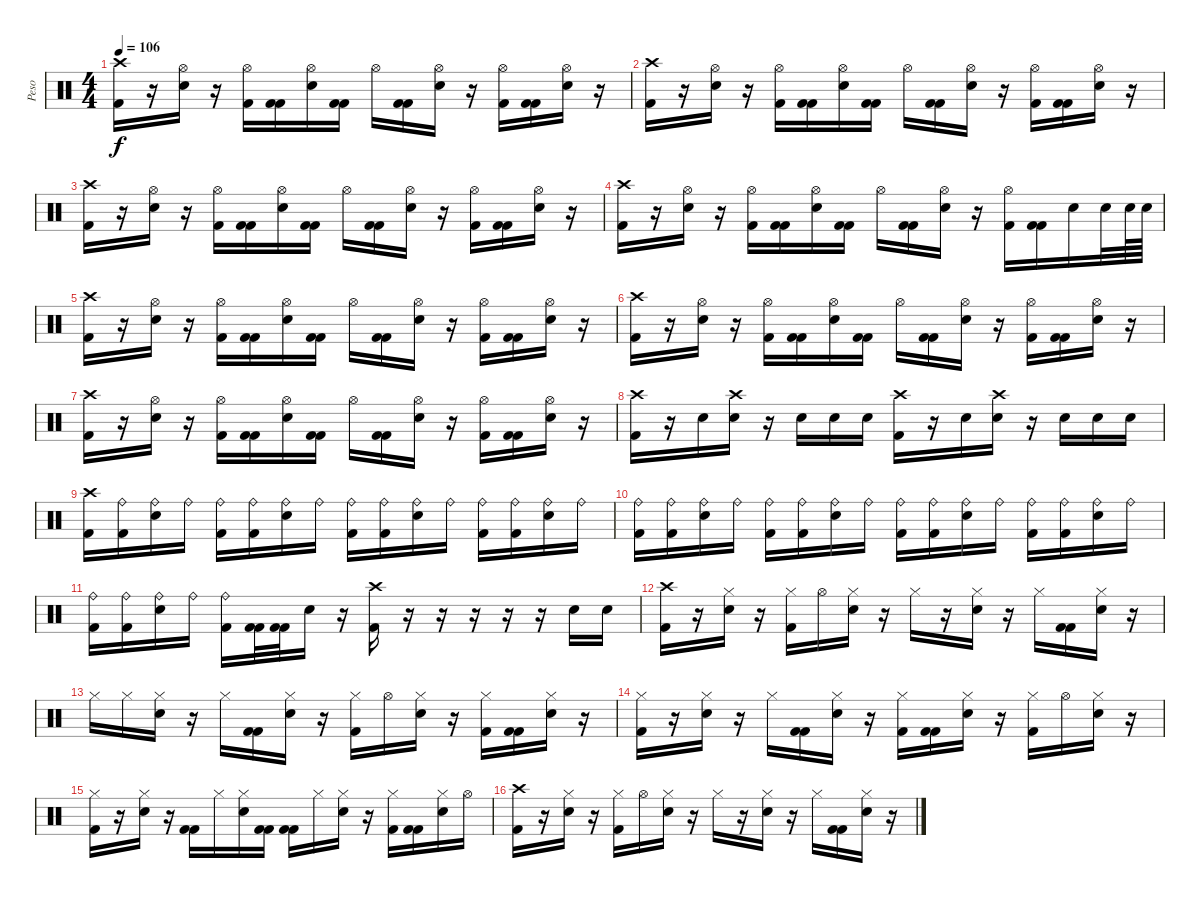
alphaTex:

\track ("Peso" "Peso") {instrument percussion}
\staff {score}
\articulation defaults
\ts (4 4)
\tempo 106
\clef neutral
\ks c
("Crash high (hit)" "Kick (hit) 2").16{dy f} r.16 ("Hi-Hat (open)" "Snare (hit) 2").16 r.16 ("Hi-Hat (open)" "Kick (hit) 2").16 ("Kick (hit) 2" "Kick (hit) 2").16 ("Hi-Hat (open)" "Snare (hit) 2").16 ("Kick (hit) 2" "Kick (hit) 2").16 "Hi-Hat (open)".16 ("Kick (hit) 2" "Kick (hit) 2").16 ("Hi-Hat (open)" "Snare (hit) 2").16 r.16 ("Hi-Hat (open)" "Kick (hit) 2").16 ("Kick (hit) 2" "Kick (hit) 2").16 ("Hi-Hat (open)" "Snare (hit) 2").16 r.16 |
("Crash high (hit)" "Kick (hit) 2").16 r.16 ("Hi-Hat (open)" "Snare (hit) 2").16 r.16 ("Hi-Hat (open)" "Kick (hit) 2").16 ("Kick (hit) 2" "Kick (hit) 2").16 ("Hi-Hat (open)" "Snare (hit) 2").16 ("Kick (hit) 2" "Kick (hit) 2").16 "Hi-Hat (open)".16 ("Kick (hit) 2" "Kick (hit) 2").16 ("Hi-Hat (open)" "Snare (hit) 2").16 r.16 ("Hi-Hat (open)" "Kick (hit) 2").16 ("Kick (hit) 2" "Kick (hit) 2").16 ("Hi-Hat (open)" "Snare (hit) 2").16 r.16 |
("Crash high (hit)" "Kick (hit) 2").16 r.16 ("Hi-Hat (open)" "Snare (hit) 2").16 r.16 ("Hi-Hat (open)" "Kick (hit) 2").16 ("Kick (hit) 2" "Kick (hit) 2").16 ("Hi-Hat (open)" "Snare (hit) 2").16 ("Kick (hit) 2" "Kick (hit) 2").16 "Hi-Hat (open)".16 ("Kick (hit) 2" "Kick (hit) 2").16 ("Hi-Hat (open)" "Snare (hit) 2").16 r.16 ("Hi-Hat (open)" "Kick (hit) 2").16 ("Kick (hit) 2" "Kick (hit) 2").16 ("Hi-Hat (open)" "Snare (hit) 2").16 r.16 |
("Crash high (hit)" "Kick (hit) 2").16 r.16 ("Hi-Hat (open)" "Snare (hit) 2").16 r.16 ("Hi-Hat (open)" "Kick (hit) 2").16 ("Kick (hit) 2" "Kick (hit) 2").16 ("Hi-Hat (open)" "Snare (hit) 2").16 ("Kick (hit) 2" "Kick (hit) 2").16 "Hi-Hat (open)".16 ("Kick (hit) 2" "Kick (hit) 2").16 ("Hi-Hat (open)" "Snare (hit) 2").16 r.16 ("Hi-Hat (open)" "Kick (hit) 2").16 ("Kick (hit) 2" "Kick (hit) 2").16 "Snare (hit) 2".16 "Snare (hit) 2".32 "Snare (hit) 2".64 "Snare (hit) 2".64 |
("Crash high (hit)" "Kick (hit) 2").16 r.16 ("Hi-Hat (open)" "Snare (hit) 2").16 r.16 ("Hi-Hat (open)" "Kick (hit) 2").16 ("Kick (hit) 2" "Kick (hit) 2").16 ("Hi-Hat (open)" "Snare (hit) 2").16 ("Kick (hit) 2" "Kick (hit) 2").16 "Hi-Hat (open)".16 ("Kick (hit) 2" "Kick (hit) 2").16 ("Hi-Hat (open)" "Snare (hit) 2").16 r.16 ("Hi-Hat (open)" "Kick (hit) 2").16 ("Kick (hit) 2" "Kick (hit) 2").16 ("Hi-Hat (open)" "Snare (hit) 2").16 r.16 |
("Crash high (hit)" "Kick (hit) 2").16 r.16 ("Hi-Hat (open)" "Snare (hit) 2").16 r.16 ("Hi-Hat (open)" "Kick (hit) 2").16 ("Kick (hit) 2" "Kick (hit) 2").16 ("Hi-Hat (open)" "Snare (hit) 2").16 ("Kick (hit) 2" "Kick (hit) 2").16 "Hi-Hat (open)".16 ("Kick (hit) 2" "Kick (hit) 2").16 ("Hi-Hat (open)" "Snare (hit) 2").16 r.16 ("Hi-Hat (open)" "Kick (hit) 2").16 ("Kick (hit) 2" "Kick (hit) 2").16 ("Hi-Hat (open)" "Snare (hit) 2").16 r.16 |
("Crash high (hit)" "Kick (hit) 2").16 r.16 ("Hi-Hat (open)" "Snare (hit) 2").16 r.16 ("Hi-Hat (open)" "Kick (hit) 2").16 ("Kick (hit) 2" "Kick (hit) 2").16 ("Hi-Hat (open)" "Snare (hit) 2").16 ("Kick (hit) 2" "Kick (hit) 2").16 "Hi-Hat (open)".16 ("Kick (hit) 2" "Kick (hit) 2").16 ("Hi-Hat (open)" "Snare (hit) 2").16 r.16 ("Hi-Hat (open)" "Kick (hit) 2").16 ("Kick (hit) 2" "Kick (hit) 2").16 ("Hi-Hat (open)" "Snare (hit) 2").16 r.16 |
("Crash high (hit)" "Kick (hit) 2").16 r.16 "Snare (hit) 2".16 ("Crash high (hit)" "Snare (hit) 2").16 r.16 "Snare (hit) 2".16 "Snare (hit) 2".16 "Snare (hit) 2".16 ("Crash high (hit)" "Kick (hit) 2").16 r.16 "Snare (hit) 2".16 ("Crash high (hit)" "Snare (hit) 2").16 r.16 "Snare (hit) 2".16 "Snare (hit) 2".16 "Snare (hit) 2".16 |
("Crash high (hit)" "Kick (hit) 2").16 ("Ride (bell)" "Kick (hit) 2").16 ("Ride (bell)" "Snare (hit) 2").16 "Ride (bell)".16 ("Ride (bell)" "Kick (hit) 2").16 ("Ride (bell)" "Kick (hit) 2").16 ("Ride (bell)" "Snare (hit) 2").16 "Ride (bell)".16 ("Ride (bell)" "Kick (hit) 2").16 ("Ride (bell)" "Kick (hit) 2").16 ("Ride (bell)" "Snare (hit) 2").16 "Ride (bell)".16 ("Ride (bell)" "Kick (hit) 2").16 ("Ride (bell)" "Kick (hit) 2").16 ("Ride (bell)" "Snare (hit) 2").16 "Ride (bell)".16 |
("Ride (bell)" "Kick (hit) 2").16 ("Ride (bell)" "Kick (hit) 2").16 ("Ride (bell)" "Snare (hit) 2").16 "Ride (bell)".16 ("Ride (bell)" "Kick (hit) 2").16 ("Ride (bell)" "Kick (hit) 2").16 ("Ride (bell)" "Snare (hit) 2").16 "Ride (bell)".16 ("Ride (bell)" "Kick (hit) 2").16 ("Ride (bell)" "Kick (hit) 2").16 ("Ride (bell)" "Snare (hit) 2").16 "Ride (bell)".16 ("Ride (bell)" "Kick (hit) 2").16 ("Ride (bell)" "Kick (hit) 2").16 ("Ride (bell)" "Snare (hit) 2").16 "Ride (bell)".16 |
("Ride (bell)" "Kick (hit) 2").16 ("Ride (bell)" "Kick (hit) 2").16 ("Ride (bell)" "Snare (hit) 2").16 "Ride (bell)".16 ("Ride (bell)" "Kick (hit) 2").16 ("Kick (hit) 2" "Kick (hit) 2").32 ("Kick (hit) 2" "Kick (hit) 2").32 "Snare (hit) 2".16 r.16 ("Crash high (hit)" "Kick (hit) 2").16 r.16 r.16 r.16 r.16 r.16 "Snare (hit) 2".16 "Snare (hit) 2".16 |
("Crash high (hit)" "Kick (hit) 2").16 r.16 ("Hi-Hat (closed)" "Snare (hit) 2").16 r.16 ("Hi-Hat (closed)" "Kick (hit) 2").16 "Hi-Hat (open)".16 ("Hi-Hat (closed)" "Snare (hit) 2").16 r.16 "Hi-Hat (closed)".16 r.16 ("Hi-Hat (closed)" "Snare (hit) 2").16 r.16 "Hi-Hat (closed)".16 ("Kick (hit) 2" "Kick (hit) 2").16 ("Hi-Hat (closed)" "Snare (hit) 2").16 r.16 |
"Hi-Hat (closed)".16 "Hi-Hat (closed)".16 ("Hi-Hat (closed)" "Snare (hit) 2").16 r.16 "Hi-Hat (closed)".16 ("Kick (hit) 2" "Kick (hit) 2").16 ("Hi-Hat (closed)" "Snare (hit) 2").16 r.16 ("Hi-Hat (closed)" "Kick (hit) 2").16 "Hi-Hat (open)".16 ("Hi-Hat (closed)" "Snare (hit) 2").16 r.16 ("Hi-Hat (closed)" "Kick (hit) 2").16 ("Kick (hit) 2" "Kick (hit) 2").16 ("Hi-Hat (closed)" "Snare (hit) 2").16 r.16 |
("Hi-Hat (closed)" "Kick (hit) 2").16 r.16 ("Hi-Hat (closed)" "Snare (hit) 2").16 r.16 "Hi-Hat (closed)".16 ("Kick (hit) 2" "Kick (hit) 2").16 ("Hi-Hat (closed)" "Snare (hit) 2").16 r.16 ("Hi-Hat (closed)" "Kick (hit) 2").16 ("Kick (hit) 2" "Kick (hit) 2").16 ("Hi-Hat (closed)" "Snare (hit) 2").16 r.16 ("Hi-Hat (closed)" "Kick (hit) 2").16 "Hi-Hat (open)".16 ("Hi-Hat (closed)" "Snare (hit) 2").16 r.16 |
("Hi-Hat (closed)" "Kick (hit) 2").16 r.16 ("Hi-Hat (closed)" "Snare (hit) 2").16 r.16 ("Kick (hit) 2" "Kick (hit) 2").16 "Hi-Hat (closed)".16 ("Hi-Hat (closed)" "Snare (hit) 2").16 ("Kick (hit) 2" "Kick (hit) 2").16 ("Kick (hit) 2" "Kick (hit) 2").16 "Hi-Hat (closed)".16 ("Hi-Hat (closed)" "Snare (hit) 2").16 r.16 ("Hi-Hat (closed)" "Kick (hit) 2").16 ("Kick (hit) 2" "Kick (hit) 2").16 ("Hi-Hat (closed)" "Snare (hit) 2").16 "Hi-Hat (open)".16 |
("Crash high (hit)" "Kick (hit) 2").16 r.16 ("Hi-Hat (closed)" "Snare (hit) 2").16 r.16 ("Hi-Hat (closed)" "Kick (hit) 2").16 "Hi-Hat (open)".16 ("Hi-Hat (closed)" "Snare (hit) 2").16 r.16 "Hi-Hat (closed)".16 r.16 ("Hi-Hat (closed)" "Snare (hit) 2").16 r.16 "Hi-Hat (closed)".16 ("Kick (hit) 2" "Kick (hit) 2").16 ("Hi-Hat (closed)" "Snare (hit) 2").16 r.16
